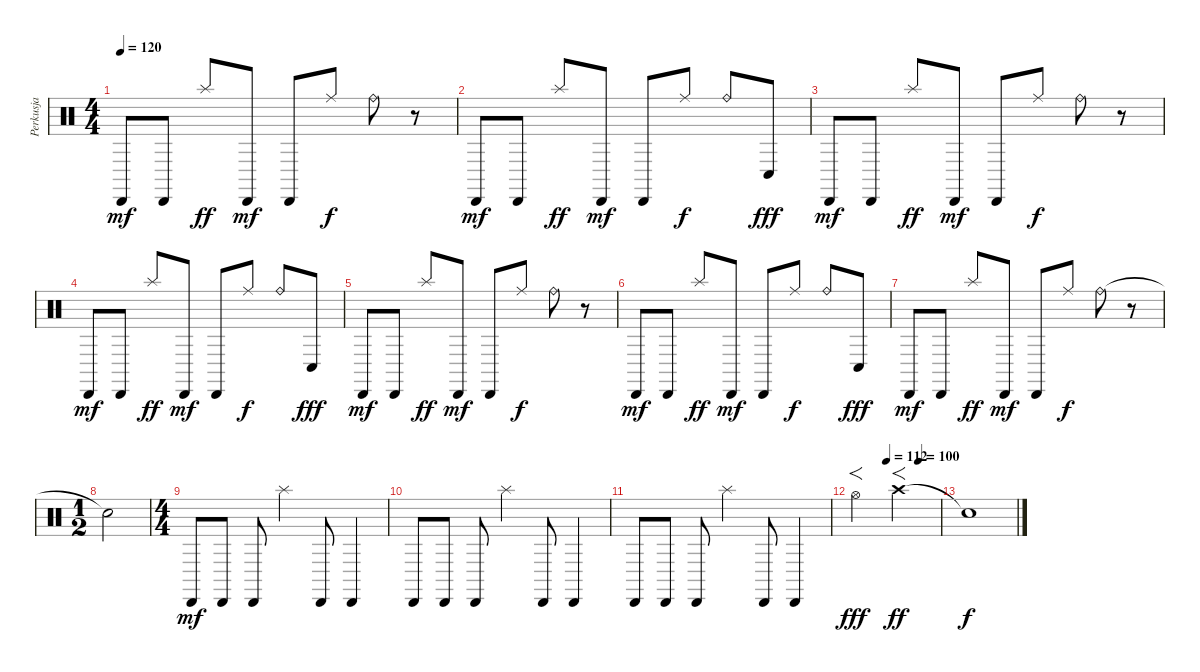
\track ("Perkusja" "Perkusja") {instrument percussion}
\staff {score}
\articulation defaults
\ts (4 4)
\tempo 120
\clef neutral
\ks c "Cabasa (hit)".8{dy mf} "Cabasa (hit)".8 "Splash (hit)".8{dy ff} "Cabasa (hit)".8{dy mf} "Cabasa (hit)".8 "Ride (middle)".8{dy f} "Ride (bell)".8
r.8 |
"Cabasa (hit)".8{dy mf} "Cabasa (hit)".8 "Splash (hit)".8{dy ff} "Cabasa (hit)".8{dy mf} "Cabasa (hit)".8 "Ride (middle)".8{dy f} "Ride (bell)".8 "Conga low (hit)".8{dy fff} |
"Cabasa (hit)".8{dy mf} "Cabasa (hit)".8 "Splash (hit)".8{dy ff} "Cabasa (hit)".8{dy mf} "Cabasa (hit)".8 "Ride (middle)".8{dy f} "Ride (bell)".8 r.8 |
"Cabasa (hit)".8{dy mf} "Cabasa (hit)".8 "Splash (hit)".8{dy ff} "Cabasa (hit)".8{dy mf} "Cabasa (hit)".8 "Ride (middle)".8{dy f} "Ride (bell)".8 "Conga low (hit)".8{dy fff} |
"Cabasa (hit)".8{dy mf} "Cabasa (hit)".8 "Splash (hit)".8{dy ff} "Cabasa (hit)".8{dy mf} "Cabasa (hit)".8 "Ride (middle)".8{dy f} "Ride (bell)".8 r.8 |
"Cabasa (hit)".8{dy mf} "Cabasa (hit)".8 "Splash (hit)".8{dy ff} "Cabasa (hit)".8{dy mf} "Cabasa (hit)".8 "Ride (middle)".8{dy f} "Ride (bell)".8 "Conga low (hit)".8{dy fff} |
"Cabasa (hit)".8{dy mf} "Cabasa (hit)".8 "Splash (hit)".8{dy ff} "Cabasa (hit)".8{dy mf} "Cabasa (hit)".8 "Ride (middle)".8{dy f} "Ride (bell)".8 r.8 |
\ts (1 2)
"Snare (hit)"{t}.2 |
\ts (4 4)
"Cabasa (hit)".8{dy mf} "Cabasa (hit)".8 "Cabasa (hit)".8 "Splash (hit)".4 "Cabasa (hit)".8 "Cabasa (hit)".4 |
"Cabasa (hit)".8 "Cabasa (hit)".8 "Cabasa (hit)".8 "Splash (hit)".4 "Cabasa (hit)".8 "Cabasa (hit)".4 |
"Cabasa (hit)".8 "Cabasa (hit)".8 "Cabasa (hit)".8 "Splash (hit)".4 "Cabasa (hit)".8 "Cabasa (hit)".4 |
\tempo (112 0.375)
\tempo (100 0.75)
"Hi-Hat (open)".2{f dy fff} "Crash high (hit)".2{f dy ff} |
"Snare (hit)"{t}.1{dy f}
